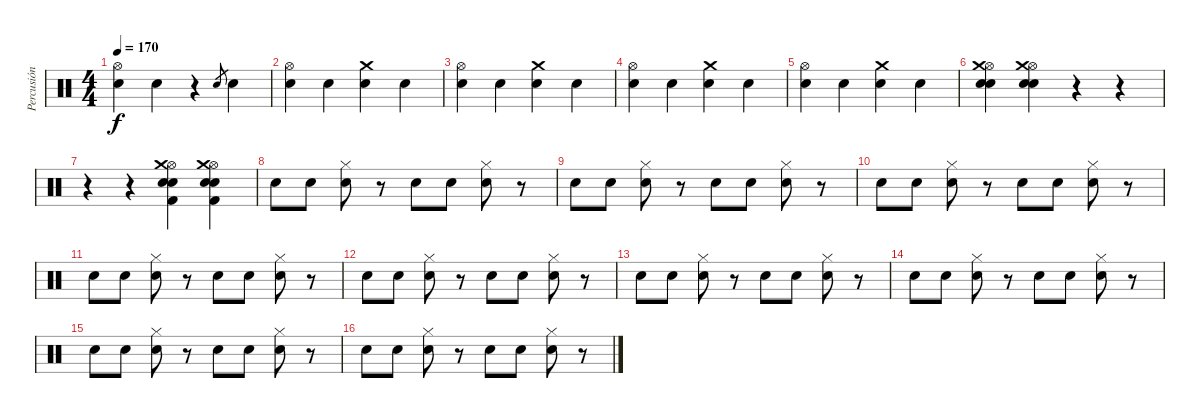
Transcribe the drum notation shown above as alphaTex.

\track ("Percusión" "Percusión") {instrument percussion}
\staff {score}
\articulation defaults
\ts (4 4)
\tempo 170
\clef neutral
\ks c
("Hi-Hat (open)" "Snare (hit) 2").4{dy f} "Snare (hit) 2".4 r.4 "Electric Snare (hit)".8{gr} "Electric Snare (hit)".4 |
("Hi-Hat (open)" "Snare (hit) 2").4 "Snare (hit) 2".4 ("Crash medium (hit)" "Electric Snare (hit)").4 "Electric Snare (hit)".4 |
("Hi-Hat (open)" "Snare (hit) 2").4 "Snare (hit) 2".4 ("Crash medium (hit)" "Electric Snare (hit)").4 "Electric Snare (hit)".4 |
("Hi-Hat (open)" "Snare (hit) 2").4 "Snare (hit) 2".4 ("Crash medium (hit)" "Electric Snare (hit)").4 "Electric Snare (hit)".4 |
("Hi-Hat (open)" "Snare (hit) 2").4 "Snare (hit) 2".4 ("Crash medium (hit)" "Electric Snare (hit)").4 "Electric Snare (hit)".4 |
("Hi-Hat (open)" "Crash medium (hit)" "Snare (hit) 2" "Electric Snare (hit)").4 ("Hi-Hat (open)" "Crash medium (hit)" "Electric Snare (hit)" "Snare (hit) 2").4 r.4 r.4 |
r.4 r.4 ("Hi-Hat (open)" "Crash medium (hit)" "Electric Snare (hit)" "Snare (hit) 2" "Kick (hit) 2").4 ("Hi-Hat (open)" "Crash medium (hit)" "Electric Snare (hit)" "Snare (hit) 2" "Kick (hit) 2").4 |
"Electric Snare (hit)".8 "Electric Snare (hit)".8 ("Hi-Hat (closed)" "Snare (hit) 2").8 r.8 "Electric Snare (hit)".8 "Electric Snare (hit)".8 ("Hi-Hat (closed)" "Snare (hit) 2").8 r.8 |
"Electric Snare (hit)".8 "Electric Snare (hit)".8 ("Hi-Hat (closed)" "Snare (hit) 2").8 r.8 "Electric Snare (hit)".8 "Electric Snare (hit)".8 ("Hi-Hat (closed)" "Snare (hit) 2").8 r.8 |
"Electric Snare (hit)".8 "Electric Snare (hit)".8 ("Hi-Hat (closed)" "Snare (hit) 2").8 r.8 "Electric Snare (hit)".8 "Electric Snare (hit)".8 ("Hi-Hat (closed)" "Snare (hit) 2").8 r.8 |
"Electric Snare (hit)".8 "Electric Snare (hit)".8 ("Hi-Hat (closed)" "Snare (hit) 2").8 r.8 "Electric Snare (hit)".8 "Electric Snare (hit)".8 ("Hi-Hat (closed)" "Snare (hit) 2").8 r.8 |
"Electric Snare (hit)".8 "Electric Snare (hit)".8 ("Hi-Hat (closed)" "Snare (hit) 2").8 r.8 "Electric Snare (hit)".8 "Electric Snare (hit)".8 ("Hi-Hat (closed)" "Snare (hit) 2").8 r.8 |
"Electric Snare (hit)".8 "Electric Snare (hit)".8 ("Hi-Hat (closed)" "Snare (hit) 2").8 r.8 "Electric Snare (hit)".8 "Electric Snare (hit)".8 ("Hi-Hat (closed)" "Snare (hit) 2").8 r.8 |
"Electric Snare (hit)".8 "Electric Snare (hit)".8 ("Hi-Hat (closed)" "Snare (hit) 2").8 r.8 "Electric Snare (hit)".8 "Electric Snare (hit)".8 ("Hi-Hat (closed)" "Snare (hit) 2").8 r.8 |
"Electric Snare (hit)".8 "Electric Snare (hit)".8 ("Hi-Hat (closed)" "Snare (hit) 2").8 r.8 "Electric Snare (hit)".8 "Electric Snare (hit)".8 ("Hi-Hat (closed)" "Snare (hit) 2").8 r.8 |
"Electric Snare (hit)".8 "Electric Snare (hit)".8 ("Hi-Hat (closed)" "Snare (hit) 2").8 r.8 "Electric Snare (hit)".8 "Electric Snare (hit)".8 ("Hi-Hat (closed)" "Snare (hit) 2").8 r.8
